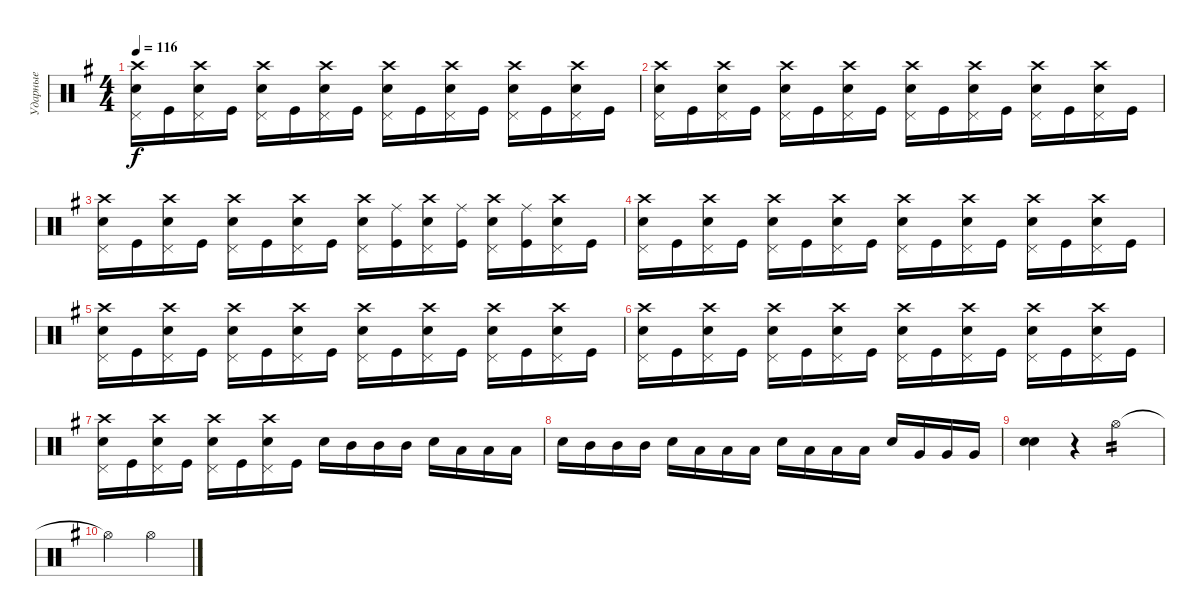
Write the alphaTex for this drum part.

\track ("Ударные" "Ударные") {instrument percussion}
\staff {score}
\articulation defaults
\ts (4 4)
\tempo 116
\clef neutral
\ks eminor
("Pedal Hi-Hat (hit)" "Snare (hit) 2" "Crash high (hit)").16{dy f} "Kick (hit)".16 ("Pedal Hi-Hat (hit)" "Snare (hit) 2" "Crash high (hit)").16 "Kick (hit)".16 ("Pedal Hi-Hat (hit)" "Snare (hit) 2" "Crash high (hit)").16 "Kick (hit)".16 ("Pedal Hi-Hat (hit)" "Snare (hit) 2" "Crash high (hit)").16 "Kick (hit)".16 ("Pedal Hi-Hat (hit)" "Snare (hit) 2" "Crash high (hit)").16 "Kick (hit)".16 ("Pedal Hi-Hat (hit)" "Snare (hit) 2" "Crash high (hit)").16 "Kick (hit)".16 ("Pedal Hi-Hat (hit)" "Snare (hit) 2" "Crash high (hit)").16 "Kick (hit)".16 ("Pedal Hi-Hat (hit)" "Snare (hit) 2" "Crash high (hit)").16 "Kick (hit)".16 |
("Pedal Hi-Hat (hit)" "Snare (hit) 2" "Crash high (hit)").16 "Kick (hit)".16 ("Pedal Hi-Hat (hit)" "Snare (hit) 2" "Crash high (hit)").16 "Kick (hit)".16 ("Pedal Hi-Hat (hit)" "Snare (hit) 2" "Crash high (hit)").16 "Kick (hit)".16 ("Pedal Hi-Hat (hit)" "Snare (hit) 2" "Crash high (hit)").16 "Kick (hit)".16 ("Pedal Hi-Hat (hit)" "Snare (hit) 2" "Crash high (hit)").16 "Kick (hit)".16 ("Pedal Hi-Hat (hit)" "Snare (hit) 2" "Crash high (hit)").16 "Kick (hit)".16 ("Pedal Hi-Hat (hit)" "Snare (hit) 2" "Crash high (hit)").16 "Kick (hit)".16 ("Pedal Hi-Hat (hit)" "Snare (hit) 2" "Crash high (hit)").16 "Kick (hit)".16 |
("Pedal Hi-Hat (hit)" "Snare (hit) 2" "Crash high (hit)").16 "Kick (hit)".16 ("Pedal Hi-Hat (hit)" "Snare (hit) 2" "Crash high (hit)").16 "Kick (hit)".16 ("Pedal Hi-Hat (hit)" "Snare (hit) 2" "Crash high (hit)").16 "Kick (hit)".16 ("Pedal Hi-Hat (hit)" "Snare (hit) 2" "Crash high (hit)").16 "Kick (hit)".16 ("Pedal Hi-Hat (hit)" "Snare (hit) 2" "Crash high (hit)").16 ("Kick (hit)" "Ride (middle)").16 ("Pedal Hi-Hat (hit)" "Snare (hit) 2" "Crash high (hit)").16 ("Kick (hit)" "Ride (middle)").16 ("Pedal Hi-Hat (hit)" "Snare (hit) 2" "Crash high (hit)").16 ("Kick (hit)" "Ride (middle)").16 ("Pedal Hi-Hat (hit)" "Snare (hit) 2" "Crash high (hit)").16 "Kick (hit)".16 |
("Pedal Hi-Hat (hit)" "Snare (hit) 2" "Crash high (hit)").16 "Kick (hit)".16 ("Pedal Hi-Hat (hit)" "Snare (hit) 2" "Crash high (hit)").16 "Kick (hit)".16 ("Pedal Hi-Hat (hit)" "Snare (hit) 2" "Crash high (hit)").16 "Kick (hit)".16 ("Pedal Hi-Hat (hit)" "Snare (hit) 2" "Crash high (hit)").16 "Kick (hit)".16 ("Pedal Hi-Hat (hit)" "Snare (hit) 2" "Crash high (hit)").16 "Kick (hit)".16 ("Pedal Hi-Hat (hit)" "Snare (hit) 2" "Crash high (hit)").16 "Kick (hit)".16 ("Pedal Hi-Hat (hit)" "Snare (hit) 2" "Crash high (hit)").16 "Kick (hit)".16 ("Pedal Hi-Hat (hit)" "Snare (hit) 2" "Crash high (hit)").16 "Kick (hit)".16 |
("Pedal Hi-Hat (hit)" "Snare (hit) 2" "Crash high (hit)").16 "Kick (hit)".16 ("Pedal Hi-Hat (hit)" "Snare (hit) 2" "Crash high (hit)").16 "Kick (hit)".16 ("Pedal Hi-Hat (hit)" "Snare (hit) 2" "Crash high (hit)").16 "Kick (hit)".16 ("Pedal Hi-Hat (hit)" "Snare (hit) 2" "Crash high (hit)").16 "Kick (hit)".16 ("Pedal Hi-Hat (hit)" "Snare (hit) 2" "Crash high (hit)").16 "Kick (hit)".16 ("Pedal Hi-Hat (hit)" "Snare (hit) 2" "Crash high (hit)").16 "Kick (hit)".16 ("Pedal Hi-Hat (hit)" "Snare (hit) 2" "Crash high (hit)").16 "Kick (hit)".16 ("Pedal Hi-Hat (hit)" "Snare (hit) 2" "Crash high (hit)").16 "Kick (hit)".16 |
("Pedal Hi-Hat (hit)" "Snare (hit) 2" "Crash high (hit)").16 "Kick (hit)".16 ("Pedal Hi-Hat (hit)" "Snare (hit) 2" "Crash high (hit)").16 "Kick (hit)".16 ("Pedal Hi-Hat (hit)" "Snare (hit) 2" "Crash high (hit)").16 "Kick (hit)".16 ("Pedal Hi-Hat (hit)" "Snare (hit) 2" "Crash high (hit)").16 "Kick (hit)".16 ("Pedal Hi-Hat (hit)" "Snare (hit) 2" "Crash high (hit)").16 "Kick (hit)".16 ("Pedal Hi-Hat (hit)" "Snare (hit) 2" "Crash high (hit)").16 "Kick (hit)".16 ("Pedal Hi-Hat (hit)" "Snare (hit) 2" "Crash high (hit)").16 "Kick (hit)".16 ("Pedal Hi-Hat (hit)" "Snare (hit) 2" "Crash high (hit)").16 "Kick (hit)".16 |
("Pedal Hi-Hat (hit)" "Snare (hit) 2" "Crash high (hit)").16 "Kick (hit)".16 ("Pedal Hi-Hat (hit)" "Snare (hit) 2" "Crash high (hit)").16 "Kick (hit)".16 ("Pedal Hi-Hat (hit)" "Snare (hit) 2" "Crash high (hit)").16 "Kick (hit)".16 ("Pedal Hi-Hat (hit)" "Snare (hit) 2" "Crash high (hit)").16 "Kick (hit)".16 "Snare (hit) 2".16 "Mid Tom (hit)".16 "Mid Tom (hit)".16 "Mid Tom (hit)".16 "Snare (hit) 2".16 "Low Tom (hit)".16 "Low Tom (hit)".16 "Low Tom (hit)".16 |
"Snare (hit) 2".16 "Mid Tom (hit)".16 "Mid Tom (hit)".16 "Mid Tom (hit)".16 "Snare (hit) 2".16 "Low Tom (hit)".16 "Low Tom (hit)".16 "Low Tom (hit)".16 "Snare (hit) 2".16 "Low Tom (hit)".16 "Low Tom (hit)".16 "Low Tom (hit)".16 "Snare (hit) 2".16 "Very Low Tom (hit)".16 "Very Low Tom (hit)".16 "Very Low Tom (hit)".16 |
("Snare (hit) 2" "Snare (hit) 2").4{bd 240} r.4 "Hi-Hat (open)".2{tp 2} |
"Hi-Hat (open)"{t}.2 "Hi-Hat (open)".2
